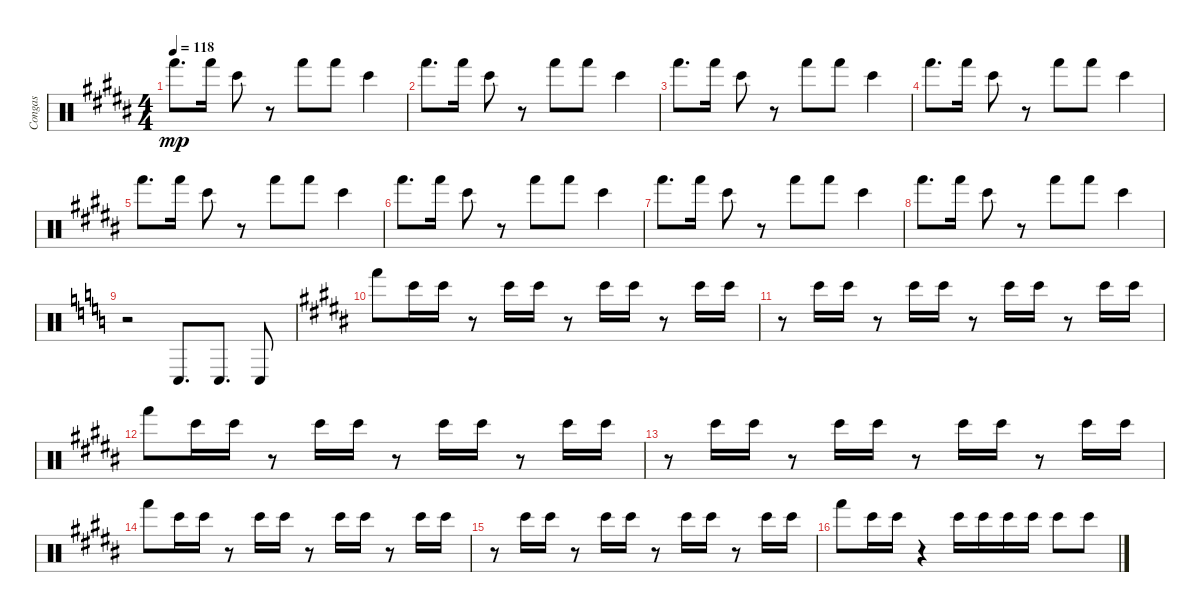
\track ("Congas" "Congas") {instrument percussion}
\staff {score}
\articulation defaults
\ts (4 4)
\tempo 118
\clef neutral
\ks b "Hand (hit)".8{d dy mp} "Hand (hit)".16 "Bongo High (hit)".8
r.8 "Hand (hit)".8 "Hand (hit)".8 "Bongo High (hit)".4 |
"Hand (hit)".8{d} "Hand (hit)".16 "Bongo High (hit)".8 r.8 "Hand (hit)".8 "Hand (hit)".8 "Bongo High (hit)".4 |
"Hand (hit)".8{d} "Hand (hit)".16 "Bongo High (hit)".8 r.8 "Hand (hit)".8 "Hand (hit)".8 "Bongo High (hit)".4 |
"Hand (hit)".8{d} "Hand (hit)".16 "Bongo High (hit)".8 r.8 "Hand (hit)".8 "Hand (hit)".8 "Bongo High (hit)".4 |
"Hand (hit)".8{d} "Hand (hit)".16 "Bongo High (hit)".8 r.8 "Hand (hit)".8 "Hand (hit)".8 "Bongo High (hit)".4 |
"Hand (hit)".8{d} "Hand (hit)".16 "Bongo High (hit)".8 r.8 "Hand (hit)".8 "Hand (hit)".8 "Bongo High (hit)".4 |
"Hand (hit)".8{d} "Hand (hit)".16 "Bongo High (hit)".8 r.8 "Hand (hit)".8 "Hand (hit)".8 "Bongo High (hit)".4 |
"Hand (hit)".8{d} "Hand (hit)".16 "Bongo High (hit)".8 r.8 "Hand (hit)".8 "Hand (hit)".8 "Bongo High (hit)".4 |
\ks c
r.2 "Conga low (hit)".8{d} "Conga low (hit)".8{d} "Conga low (hit)".8 |
\ks b "Hand (hit)".8 "Bongo High (hit)".16 "Bongo High (hit)".16
r.8 "Bongo High (hit)".16 "Bongo High (hit)".16 r.8 "Bongo High (hit)".16 "Bongo High (hit)".16 r.8 "Bongo High (hit)".16 "Bongo High (hit)".16 |
r.8 "Bongo High (hit)".16 "Bongo High (hit)".16 r.8 "Bongo High (hit)".16 "Bongo High (hit)".16 r.8 "Bongo High (hit)".16 "Bongo High (hit)".16 r.8 "Bongo High (hit)".16 "Bongo High (hit)".16 |
"Hand (hit)".8 "Bongo High (hit)".16 "Bongo High (hit)".16 r.8 "Bongo High (hit)".16 "Bongo High (hit)".16 r.8 "Bongo High (hit)".16 "Bongo High (hit)".16 r.8 "Bongo High (hit)".16 "Bongo High (hit)".16 |
r.8 "Bongo High (hit)".16 "Bongo High (hit)".16 r.8 "Bongo High (hit)".16 "Bongo High (hit)".16 r.8 "Bongo High (hit)".16 "Bongo High (hit)".16 r.8 "Bongo High (hit)".16 "Bongo High (hit)".16 |
"Hand (hit)".8 "Bongo High (hit)".16 "Bongo High (hit)".16 r.8 "Bongo High (hit)".16 "Bongo High (hit)".16 r.8 "Bongo High (hit)".16 "Bongo High (hit)".16 r.8 "Bongo High (hit)".16 "Bongo High (hit)".16 |
r.8 "Bongo High (hit)".16 "Bongo High (hit)".16 r.8 "Bongo High (hit)".16 "Bongo High (hit)".16 r.8 "Bongo High (hit)".16 "Bongo High (hit)".16 r.8 "Bongo High (hit)".16 "Bongo High (hit)".16 |
"Hand (hit)".8 "Bongo High (hit)".16 "Bongo High (hit)".16 r.4 "Bongo High (hit)".16 "Bongo High (hit)".16 "Bongo High (hit)".16 "Bongo High (hit)".16 "Bongo High (hit)".8 "Bongo High (hit)".8
